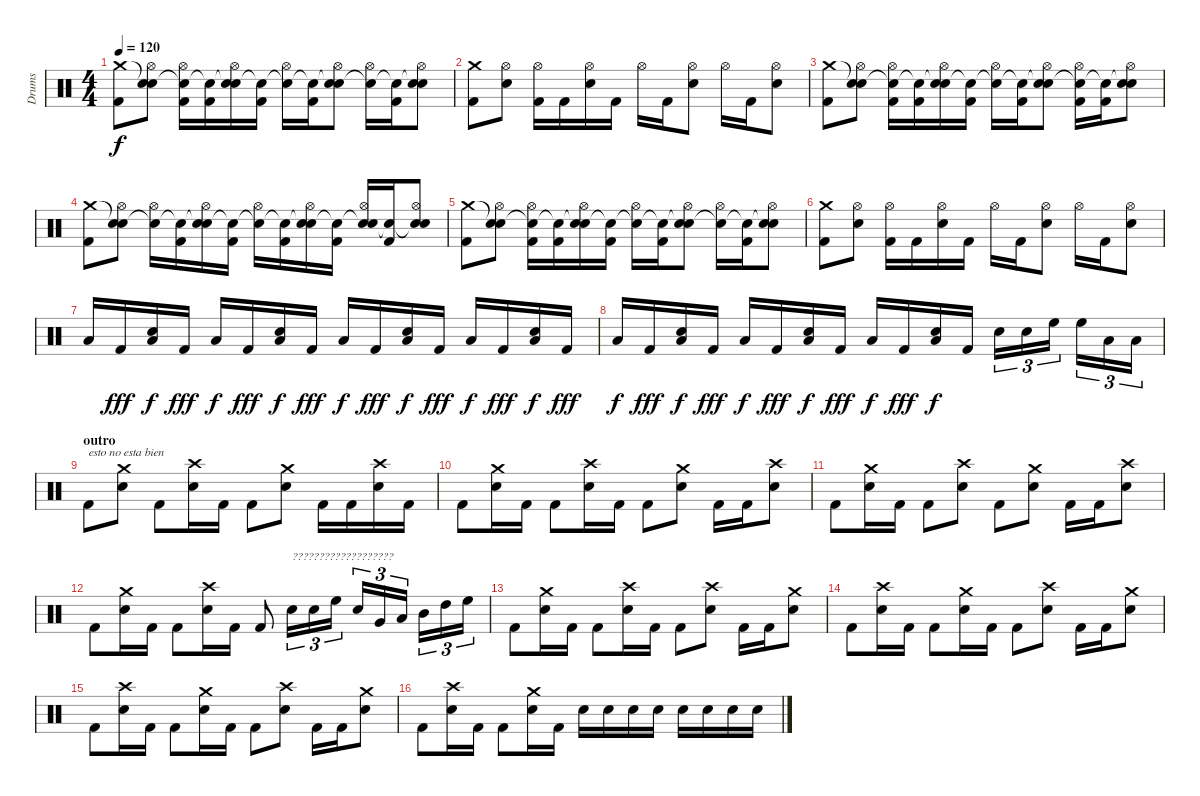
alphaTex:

\track ("Drums" "Drums") {instrument percussion}
\staff {score}
\articulation defaults
\ts (4 4)
\tempo 120
\clef neutral
\ks c
("Crash medium (hit)" "Kick (hit) 2").8{dy f} ("Snare (hit)"{t} "Hi-Hat (open)" "Electric Snare (hit)").8 ("Snare (hit)"{t} "Hi-Hat (open)" "Kick (hit) 2").16 ("Snare (hit)"{t} "Kick (hit) 2").16 ("Snare (hit)"{t} "Hi-Hat (open)" "Electric Snare (hit)").16 ("Snare (hit)"{t} "Kick (hit) 2").16 ("Snare (hit)"{t} "Hi-Hat (open)").16 ("Snare (hit)"{t} "Kick (hit) 2").16 ("Snare (hit)"{t} "Hi-Hat (open)" "Electric Snare (hit)").8 ("Snare (hit)"{t} "Hi-Hat (open)").16 ("Snare (hit)"{t} "Kick (hit) 2").16 ("Snare (hit)"{t} "Hi-Hat (open)" "Electric Snare (hit)").8 |
("Crash medium (hit)" "Kick (hit) 2").8 ("Hi-Hat (open)" "Electric Snare (hit)").8 ("Hi-Hat (open)" "Kick (hit) 2").16 "Kick (hit) 2".16 ("Hi-Hat (open)" "Electric Snare (hit)").16 "Kick (hit) 2".16 "Hi-Hat (open)".16 "Kick (hit) 2".16 ("Hi-Hat (open)" "Electric Snare (hit)").8 "Hi-Hat (open)".16 "Kick (hit) 2".16 ("Hi-Hat (open)" "Electric Snare (hit)").8 |
("Crash medium (hit)" "Kick (hit) 2").8 ("Snare (hit)"{t} "Hi-Hat (open)" "Electric Snare (hit)").8 ("Snare (hit)"{t} "Hi-Hat (open)" "Kick (hit) 2").16 ("Snare (hit)"{t} "Kick (hit) 2").16 ("Snare (hit)"{t} "Hi-Hat (open)" "Electric Snare (hit)").16 ("Snare (hit)"{t} "Kick (hit) 2").16 ("Snare (hit)"{t} "Hi-Hat (open)").16 ("Snare (hit)"{t} "Kick (hit) 2").16 ("Snare (hit)"{t} "Hi-Hat (open)" "Electric Snare (hit)").8 ("Snare (hit)"{t} "Hi-Hat (open)" "Kick (hit) 2").16 ("Snare (hit)"{t} "Kick (hit) 2").16 ("Snare (hit)"{t} "Hi-Hat (open)" "Electric Snare (hit)").8 |
("Crash medium (hit)" "Kick (hit) 2").8 ("Snare (hit)"{t} "Hi-Hat (open)" "Electric Snare (hit)").8 ("Snare (hit)"{t} "Hi-Hat (open)").16 ("Snare (hit)"{t} "Kick (hit) 2").16 ("Snare (hit)"{t} "Hi-Hat (open)" "Electric Snare (hit)").16 ("Snare (hit)"{t} "Kick (hit) 2").16 ("Snare (hit)"{t} "Hi-Hat (open)").16 ("Snare (hit)"{t} "Kick (hit) 2").16 ("Snare (hit)"{t} "Hi-Hat (open)" "Electric Snare (hit)").16 ("Snare (hit)"{t} "Kick (hit) 2").16 ("Snare (hit)"{t} "Hi-Hat (open)" "Electric Snare (hit)").16 ("Snare (hit)"{t} "Kick (hit) 2").16 ("Snare (hit)"{t} "Hi-Hat (open)" "Electric Snare (hit)").8 |
("Crash medium (hit)" "Kick (hit) 2").8 ("Snare (hit)"{t} "Hi-Hat (open)" "Electric Snare (hit)").8 ("Snare (hit)"{t} "Hi-Hat (open)" "Kick (hit) 2").16 ("Snare (hit)"{t} "Kick (hit) 2").16 ("Snare (hit)"{t} "Hi-Hat (open)" "Electric Snare (hit)").16 ("Snare (hit)"{t} "Kick (hit) 2").16 ("Snare (hit)"{t} "Hi-Hat (open)").16 ("Snare (hit)"{t} "Kick (hit) 2").16 ("Snare (hit)"{t} "Hi-Hat (open)" "Electric Snare (hit)").8 ("Snare (hit)"{t} "Hi-Hat (open)").16 ("Snare (hit)"{t} "Kick (hit) 2").16 ("Snare (hit)"{t} "Hi-Hat (open)" "Electric Snare (hit)").8 |
("Crash medium (hit)" "Kick (hit) 2").8 ("Hi-Hat (open)" "Electric Snare (hit)").8 ("Hi-Hat (open)" "Kick (hit) 2").16 "Kick (hit) 2".16 ("Hi-Hat (open)" "Electric Snare (hit)").16 "Kick (hit) 2".16 "Hi-Hat (open)".16 "Kick (hit) 2".16 ("Hi-Hat (open)" "Electric Snare (hit)").8 "Hi-Hat (open)".16 "Kick (hit) 2".16 ("Hi-Hat (open)" "Electric Snare (hit)").8 |
"Low Floor Tom (hit)".16 "Kick (hit) 2".16{dy fff} ("Low Floor Tom (hit)" "Electric Snare (hit)").16{dy f} "Kick (hit) 2".16{dy fff} "Low Floor Tom (hit)".16{dy f} "Kick (hit) 2".16{dy fff} ("Low Floor Tom (hit)" "Electric Snare (hit)").16{dy f} "Kick (hit) 2".16{dy fff} "Low Floor Tom (hit)".16{dy f} "Kick (hit) 2".16{dy fff} ("Low Floor Tom (hit)" "Electric Snare (hit)").16{dy f} "Kick (hit) 2".16{dy fff} "Low Floor Tom (hit)".16{dy f} "Kick (hit) 2".16{dy fff} ("Low Floor Tom (hit)" "Electric Snare (hit)").16{dy f} "Kick (hit) 2".16{dy fff} |
"Low Floor Tom (hit)".16{dy f} "Kick (hit) 2".16{dy fff} ("Low Floor Tom (hit)" "Electric Snare (hit)").16{dy f} "Kick (hit) 2".16{dy fff} "Low Floor Tom (hit)".16{dy f} "Kick (hit) 2".16{dy fff} ("Low Floor Tom (hit)" "Electric Snare (hit)").16{dy f} "Kick (hit) 2".16{dy fff} "Low Floor Tom (hit)".16{dy f} "Kick (hit) 2".16{dy fff} ("Low Floor Tom (hit)" "Electric Snare (hit)").16{dy f} "Kick (hit) 2".16 "Electric Snare (hit)".16{tu (3 2)} "Electric Snare (hit)".16{tu (3 2)} "High Floor Tom (hit)".16{tu (3 2)} "High Floor Tom (hit)".16{tu (3 2)} "Low Tom (hit)".16{tu (3 2)} "Low Tom (hit)".16{tu (3 2)} |
\section ("" "outro")
"Kick (hit) 2".8{txt "esto no esta bien"} ("Crash medium (hit)" "Electric Snare (hit)").8 "Kick (hit) 2".8 ("Crash high (hit)" "Electric Snare (hit)").16 "Kick (hit) 2".16 "Kick (hit) 2".8 ("Crash medium (hit)" "Electric Snare (hit)").8 "Kick (hit) 2".16 "Kick (hit) 2".16 ("Crash high (hit)" "Electric Snare (hit)").16 "Kick (hit) 2".16 |
"Kick (hit) 2".8 ("Crash medium (hit)" "Electric Snare (hit)").16 "Kick (hit) 2".16 "Kick (hit) 2".8 ("Crash high (hit)" "Electric Snare (hit)").16 "Kick (hit) 2".16 "Kick (hit) 2".8 ("Crash medium (hit)" "Electric Snare (hit)").8 "Kick (hit) 2".16 "Kick (hit) 2".16 ("Crash high (hit)" "Electric Snare (hit)").8 |
"Kick (hit) 2".8 ("Crash medium (hit)" "Electric Snare (hit)").16 "Kick (hit) 2".16 "Kick (hit) 2".8 ("Crash high (hit)" "Electric Snare (hit)").8 "Kick (hit) 2".8 ("Crash medium (hit)" "Electric Snare (hit)").8 "Kick (hit) 2".16 "Kick (hit) 2".16 ("Crash high (hit)" "Electric Snare (hit)").8 |
"Kick (hit) 2".8 ("Crash medium (hit)" "Electric Snare (hit)").16 "Kick (hit) 2".16 "Kick (hit) 2".8 ("Crash high (hit)" "Electric Snare (hit)").16 "Kick (hit) 2".16 "Kick (hit) 2".8 "Electric Snare (hit)".16{tu (3 2) txt "???????????????????"} "Electric Snare (hit)".16{tu (3 2)} "High Floor Tom (hit)".16{tu (3 2)} "Electric Snare (hit)".16{tu (3 2)} "Very Low Tom (hit)".16{tu (3 2)} "Low Tom (hit)".16{tu (3 2)} "Mid Tom (hit)".16{tu (3 2)} "High Tom (hit)".16{tu (3 2)} "High Floor Tom (hit)".16{tu (3 2)} |
"Kick (hit) 2".8 ("Crash medium (hit)" "Electric Snare (hit)").16 "Kick (hit) 2".16 "Kick (hit) 2".8 ("Crash high (hit)" "Electric Snare (hit)").16 "Kick (hit) 2".16 "Kick (hit) 2".8 ("Crash high (hit)" "Electric Snare (hit)").8 "Kick (hit) 2".16 "Kick (hit) 2".16 ("Crash medium (hit)" "Electric Snare (hit)").8 |
"Kick (hit) 2".8 ("Crash high (hit)" "Electric Snare (hit)").16 "Kick (hit) 2".16 "Kick (hit) 2".8 ("Crash medium (hit)" "Electric Snare (hit)").16 "Kick (hit) 2".16 "Kick (hit) 2".8 ("Crash high (hit)" "Electric Snare (hit)").8 "Kick (hit) 2".16 "Kick (hit) 2".16 ("Crash medium (hit)" "Electric Snare (hit)").8 |
"Kick (hit) 2".8 ("Crash high (hit)" "Electric Snare (hit)").16 "Kick (hit) 2".16 "Kick (hit) 2".8 ("Crash medium (hit)" "Electric Snare (hit)").16 "Kick (hit) 2".16 "Kick (hit) 2".8 ("Crash high (hit)" "Electric Snare (hit)").8 "Kick (hit) 2".16 "Kick (hit) 2".16 ("Crash medium (hit)" "Electric Snare (hit)").8 |
"Kick (hit) 2".8 ("Crash high (hit)" "Electric Snare (hit)").16 "Kick (hit) 2".16 "Kick (hit) 2".8 ("Crash medium (hit)" "Electric Snare (hit)").16 "Kick (hit) 2".16 "Electric Snare (hit)".16 "Electric Snare (hit)".16 "Electric Snare (hit)".16 "Electric Snare (hit)".16 "Electric Snare (hit)".16 "Electric Snare (hit)".16 "Electric Snare (hit)".16 "Electric Snare (hit)".16
